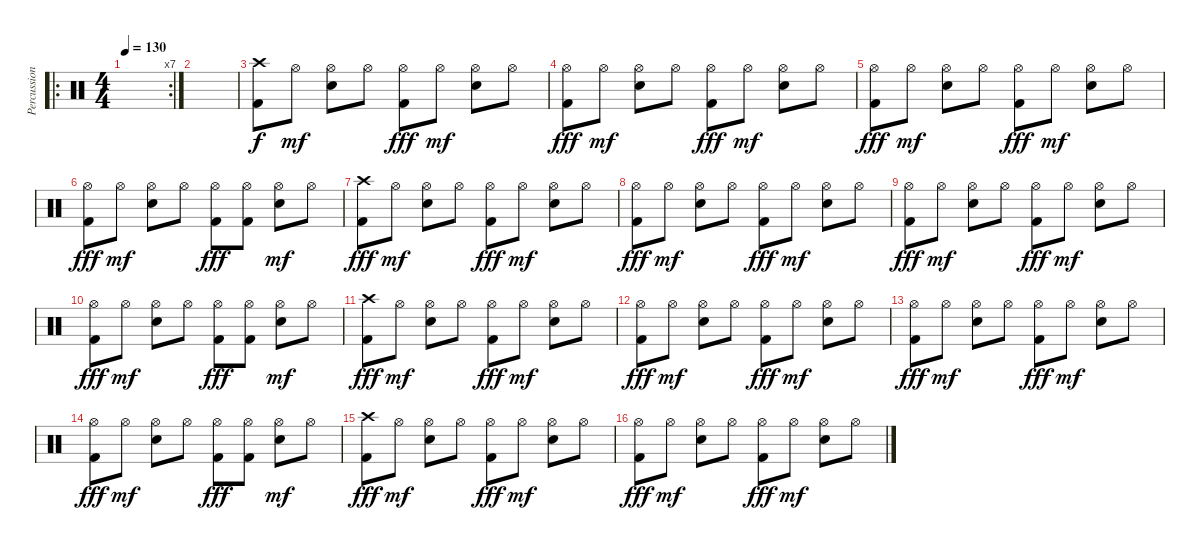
\track ("Percussion" "Percussion") {instrument percussion}
\staff {score}
\articulation defaults
\ro
\rc 7
\ts (4 4)
\tempo 130
\clef neutral
\ks c
|
|
("Crash high (hit)" "Kick (hit) 2").8 "Hi-Hat (open)".8{dy mf} ("Hi-Hat (open)" "Electric Snare (hit)").8 "Hi-Hat (open)".8 ("Hi-Hat (open)" "Kick (hit) 2").8{dy fff} "Hi-Hat (open)".8{dy mf} ("Hi-Hat (open)" "Electric Snare (hit)").8 "Hi-Hat (open)".8 |
("Hi-Hat (open)" "Kick (hit) 2").8{dy fff} "Hi-Hat (open)".8{dy mf} ("Hi-Hat (open)" "Electric Snare (hit)").8 "Hi-Hat (open)".8 ("Hi-Hat (open)" "Kick (hit) 2").8{dy fff} "Hi-Hat (open)".8{dy mf} ("Hi-Hat (open)" "Electric Snare (hit)").8 "Hi-Hat (open)".8 |
("Hi-Hat (open)" "Kick (hit) 2").8{dy fff} "Hi-Hat (open)".8{dy mf} ("Hi-Hat (open)" "Electric Snare (hit)").8 "Hi-Hat (open)".8 ("Hi-Hat (open)" "Kick (hit) 2").8{dy fff} "Hi-Hat (open)".8{dy mf} ("Hi-Hat (open)" "Electric Snare (hit)").8 "Hi-Hat (open)".8 |
("Hi-Hat (open)" "Kick (hit) 2").8{dy fff} "Hi-Hat (open)".8{dy mf} ("Hi-Hat (open)" "Electric Snare (hit)").8 "Hi-Hat (open)".8 ("Hi-Hat (open)" "Kick (hit) 2").8{dy fff} ("Hi-Hat (open)" "Kick (hit) 2").8 ("Hi-Hat (open)" "Electric Snare (hit)").8{dy mf} "Hi-Hat (open)".8 |
("Crash high (hit)" "Kick (hit) 2").8{dy fff} "Hi-Hat (open)".8{dy mf} ("Hi-Hat (open)" "Electric Snare (hit)").8 "Hi-Hat (open)".8 ("Hi-Hat (open)" "Kick (hit) 2").8{dy fff} "Hi-Hat (open)".8{dy mf} ("Hi-Hat (open)" "Electric Snare (hit)").8 "Hi-Hat (open)".8 |
("Hi-Hat (open)" "Kick (hit) 2").8{dy fff} "Hi-Hat (open)".8{dy mf} ("Hi-Hat (open)" "Electric Snare (hit)").8 "Hi-Hat (open)".8 ("Hi-Hat (open)" "Kick (hit) 2").8{dy fff} "Hi-Hat (open)".8{dy mf} ("Hi-Hat (open)" "Electric Snare (hit)").8 "Hi-Hat (open)".8 |
("Hi-Hat (open)" "Kick (hit) 2").8{dy fff} "Hi-Hat (open)".8{dy mf} ("Hi-Hat (open)" "Electric Snare (hit)").8 "Hi-Hat (open)".8 ("Hi-Hat (open)" "Kick (hit) 2").8{dy fff} "Hi-Hat (open)".8{dy mf} ("Hi-Hat (open)" "Electric Snare (hit)").8 "Hi-Hat (open)".8 |
("Hi-Hat (open)" "Kick (hit) 2").8{dy fff} "Hi-Hat (open)".8{dy mf} ("Hi-Hat (open)" "Electric Snare (hit)").8 "Hi-Hat (open)".8 ("Hi-Hat (open)" "Kick (hit) 2").8{dy fff} ("Hi-Hat (open)" "Kick (hit) 2").8 ("Hi-Hat (open)" "Electric Snare (hit)").8{dy mf} "Hi-Hat (open)".8 |
("Crash high (hit)" "Kick (hit) 2").8{dy fff} "Hi-Hat (open)".8{dy mf} ("Hi-Hat (open)" "Electric Snare (hit)").8 "Hi-Hat (open)".8 ("Hi-Hat (open)" "Kick (hit) 2").8{dy fff} "Hi-Hat (open)".8{dy mf} ("Hi-Hat (open)" "Electric Snare (hit)").8 "Hi-Hat (open)".8 |
("Hi-Hat (open)" "Kick (hit) 2").8{dy fff} "Hi-Hat (open)".8{dy mf} ("Hi-Hat (open)" "Electric Snare (hit)").8 "Hi-Hat (open)".8 ("Hi-Hat (open)" "Kick (hit) 2").8{dy fff} "Hi-Hat (open)".8{dy mf} ("Hi-Hat (open)" "Electric Snare (hit)").8 "Hi-Hat (open)".8 |
("Hi-Hat (open)" "Kick (hit) 2").8{dy fff} "Hi-Hat (open)".8{dy mf} ("Hi-Hat (open)" "Electric Snare (hit)").8 "Hi-Hat (open)".8 ("Hi-Hat (open)" "Kick (hit) 2").8{dy fff} "Hi-Hat (open)".8{dy mf} ("Hi-Hat (open)" "Electric Snare (hit)").8 "Hi-Hat (open)".8 |
("Hi-Hat (open)" "Kick (hit) 2").8{dy fff} "Hi-Hat (open)".8{dy mf} ("Hi-Hat (open)" "Electric Snare (hit)").8 "Hi-Hat (open)".8 ("Hi-Hat (open)" "Kick (hit) 2").8{dy fff} ("Hi-Hat (open)" "Kick (hit) 2").8 ("Hi-Hat (open)" "Electric Snare (hit)").8{dy mf} "Hi-Hat (open)".8 |
("Crash high (hit)" "Kick (hit) 2").8{dy fff} "Hi-Hat (open)".8{dy mf} ("Hi-Hat (open)" "Electric Snare (hit)").8 "Hi-Hat (open)".8 ("Hi-Hat (open)" "Kick (hit) 2").8{dy fff} "Hi-Hat (open)".8{dy mf} ("Hi-Hat (open)" "Electric Snare (hit)").8 "Hi-Hat (open)".8 |
("Hi-Hat (open)" "Kick (hit) 2").8{dy fff} "Hi-Hat (open)".8{dy mf} ("Hi-Hat (open)" "Electric Snare (hit)").8 "Hi-Hat (open)".8 ("Hi-Hat (open)" "Kick (hit) 2").8{dy fff} "Hi-Hat (open)".8{dy mf} ("Hi-Hat (open)" "Electric Snare (hit)").8 "Hi-Hat (open)".8
